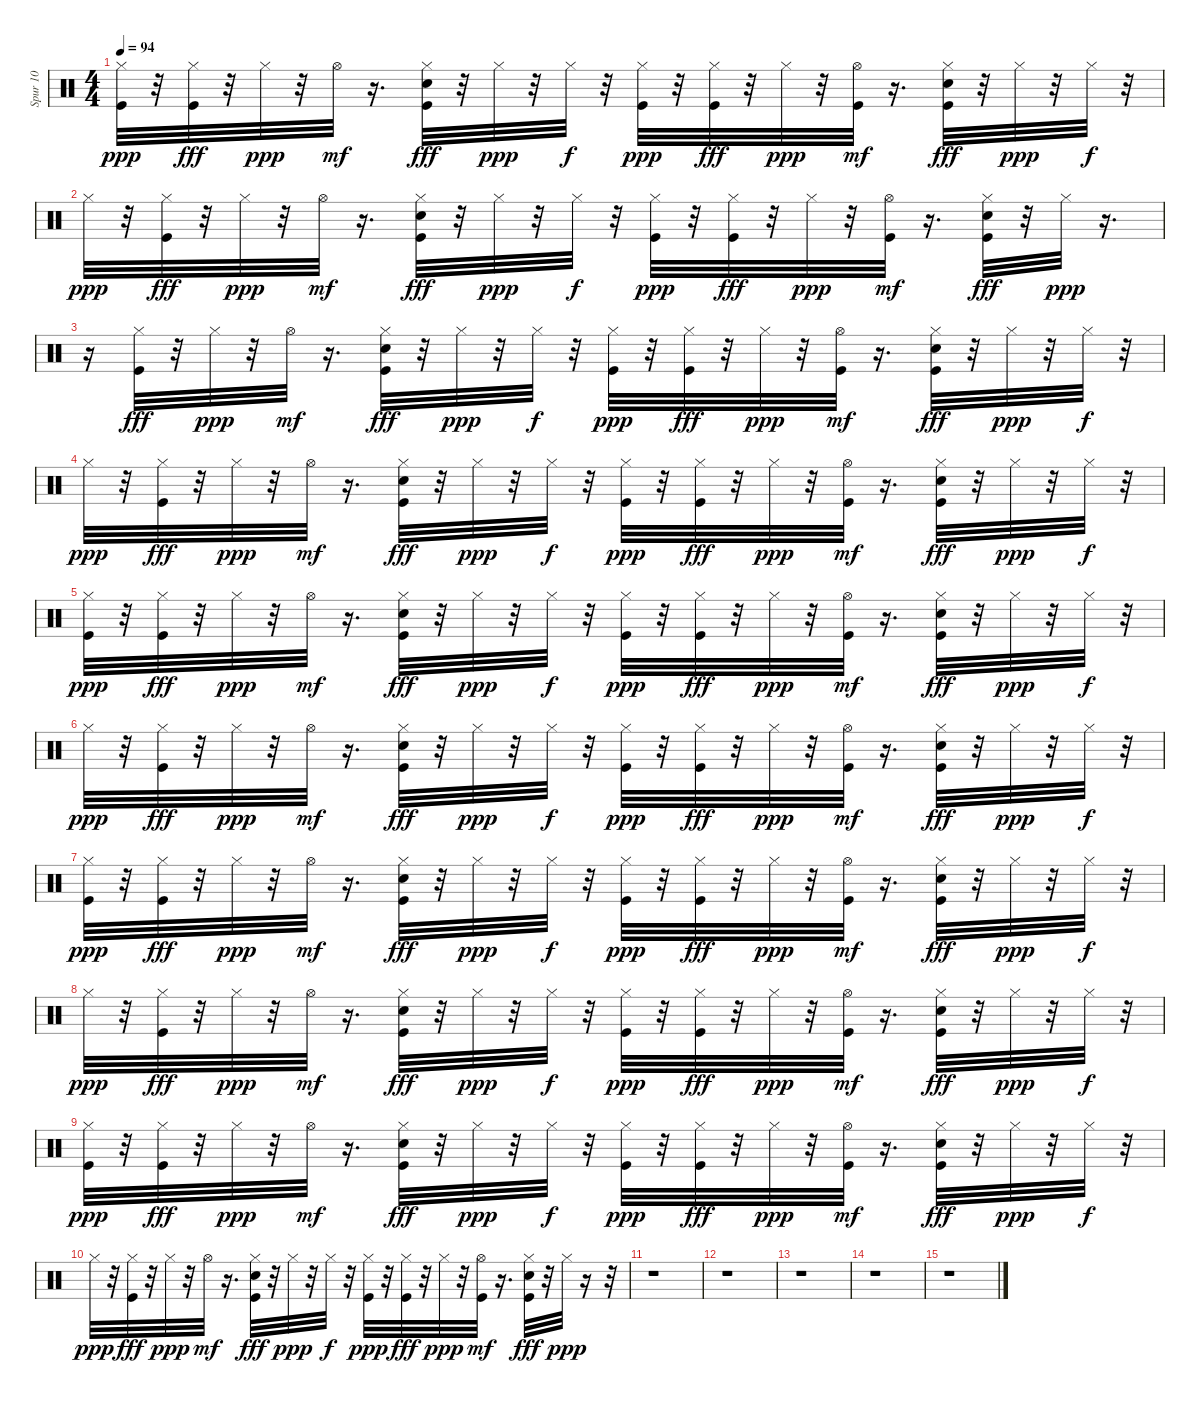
\track ("Spur 10" "Spur 10") {instrument percussion}
\staff {score}
\articulation defaults
\ts (4 4)
\tempo 94
\clef neutral
\ks c
("Kick (hit)" "Hi-Hat (closed)").32{dy ppp} r.32 ("Kick (hit)" "Hi-Hat (closed)").32{dy fff} r.32 "Hi-Hat (closed)".32{dy ppp} r.32 "Hi-Hat (open)".32{dy mf} r.16{d} ("Kick (hit)" "Electric Snare (hit)" "Hi-Hat (closed)").32{dy fff} r.32 "Hi-Hat (closed)".32{dy ppp} r.32 "Hi-Hat (closed)".32{dy f} r.32 ("Kick (hit)" "Hi-Hat (closed)").32{dy ppp} r.32 ("Kick (hit)" "Hi-Hat (closed)").32{dy fff} r.32 "Hi-Hat (closed)".32{dy ppp} r.32 ("Kick (hit)" "Hi-Hat (open)").32{dy mf} r.16{d} ("Kick (hit)" "Electric Snare (hit)" "Hi-Hat (closed)").32{dy fff} r.32 "Hi-Hat (closed)".32{dy ppp} r.32 "Hi-Hat (closed)".32{dy f} r.32 |
"Hi-Hat (closed)".32{dy ppp} r.32 ("Kick (hit)" "Hi-Hat (closed)").32{dy fff} r.32 "Hi-Hat (closed)".32{dy ppp} r.32 "Hi-Hat (open)".32{dy mf} r.16{d} ("Kick (hit)" "Electric Snare (hit)" "Hi-Hat (closed)").32{dy fff} r.32 "Hi-Hat (closed)".32{dy ppp} r.32 "Hi-Hat (closed)".32{dy f} r.32 ("Kick (hit)" "Hi-Hat (closed)").32{dy ppp} r.32 ("Kick (hit)" "Hi-Hat (closed)").32{dy fff} r.32 "Hi-Hat (closed)".32{dy ppp} r.32 ("Kick (hit)" "Hi-Hat (open)").32{dy mf} r.16{d} ("Kick (hit)" "Electric Snare (hit)" "Hi-Hat (closed)").32{dy fff} r.32 "Hi-Hat (closed)".32{dy ppp} r.16{d} |
r.16 ("Kick (hit)" "Hi-Hat (closed)").32{dy fff} r.32 "Hi-Hat (closed)".32{dy ppp} r.32 "Hi-Hat (open)".32{dy mf} r.16{d} ("Kick (hit)" "Electric Snare (hit)" "Hi-Hat (closed)").32{dy fff} r.32 "Hi-Hat (closed)".32{dy ppp} r.32 "Hi-Hat (closed)".32{dy f} r.32 ("Kick (hit)" "Hi-Hat (closed)").32{dy ppp} r.32 ("Kick (hit)" "Hi-Hat (closed)").32{dy fff} r.32 "Hi-Hat (closed)".32{dy ppp} r.32 ("Kick (hit)" "Hi-Hat (open)").32{dy mf} r.16{d} ("Kick (hit)" "Electric Snare (hit)" "Hi-Hat (closed)").32{dy fff} r.32 "Hi-Hat (closed)".32{dy ppp} r.32 "Hi-Hat (closed)".32{dy f} r.32 |
"Hi-Hat (closed)".32{dy ppp} r.32 ("Kick (hit)" "Hi-Hat (closed)").32{dy fff} r.32 "Hi-Hat (closed)".32{dy ppp} r.32 "Hi-Hat (open)".32{dy mf} r.16{d} ("Kick (hit)" "Electric Snare (hit)" "Hi-Hat (closed)").32{dy fff} r.32 "Hi-Hat (closed)".32{dy ppp} r.32 "Hi-Hat (closed)".32{dy f} r.32 ("Kick (hit)" "Hi-Hat (closed)").32{dy ppp} r.32 ("Kick (hit)" "Hi-Hat (closed)").32{dy fff} r.32 "Hi-Hat (closed)".32{dy ppp} r.32 ("Kick (hit)" "Hi-Hat (open)").32{dy mf} r.16{d} ("Kick (hit)" "Electric Snare (hit)" "Hi-Hat (closed)").32{dy fff} r.32 "Hi-Hat (closed)".32{dy ppp} r.32 "Hi-Hat (closed)".32{dy f} r.32 |
("Kick (hit)" "Hi-Hat (closed)").32{dy ppp} r.32 ("Kick (hit)" "Hi-Hat (closed)").32{dy fff} r.32 "Hi-Hat (closed)".32{dy ppp} r.32 "Hi-Hat (open)".32{dy mf} r.16{d} ("Kick (hit)" "Electric Snare (hit)" "Hi-Hat (closed)").32{dy fff} r.32 "Hi-Hat (closed)".32{dy ppp} r.32 "Hi-Hat (closed)".32{dy f} r.32 ("Kick (hit)" "Hi-Hat (closed)").32{dy ppp} r.32 ("Kick (hit)" "Hi-Hat (closed)").32{dy fff} r.32 "Hi-Hat (closed)".32{dy ppp} r.32 ("Kick (hit)" "Hi-Hat (open)").32{dy mf} r.16{d} ("Kick (hit)" "Electric Snare (hit)" "Hi-Hat (closed)").32{dy fff} r.32 "Hi-Hat (closed)".32{dy ppp} r.32 "Hi-Hat (closed)".32{dy f} r.32 |
"Hi-Hat (closed)".32{dy ppp} r.32 ("Kick (hit)" "Hi-Hat (closed)").32{dy fff} r.32 "Hi-Hat (closed)".32{dy ppp} r.32 "Hi-Hat (open)".32{dy mf} r.16{d} ("Kick (hit)" "Electric Snare (hit)" "Hi-Hat (closed)").32{dy fff} r.32 "Hi-Hat (closed)".32{dy ppp} r.32 "Hi-Hat (closed)".32{dy f} r.32 ("Kick (hit)" "Hi-Hat (closed)").32{dy ppp} r.32 ("Kick (hit)" "Hi-Hat (closed)").32{dy fff} r.32 "Hi-Hat (closed)".32{dy ppp} r.32 ("Kick (hit)" "Hi-Hat (open)").32{dy mf} r.16{d} ("Kick (hit)" "Electric Snare (hit)" "Hi-Hat (closed)").32{dy fff} r.32 "Hi-Hat (closed)".32{dy ppp} r.32 "Hi-Hat (closed)".32{dy f} r.32 |
("Kick (hit)" "Hi-Hat (closed)").32{dy ppp} r.32 ("Kick (hit)" "Hi-Hat (closed)").32{dy fff} r.32 "Hi-Hat (closed)".32{dy ppp} r.32 "Hi-Hat (open)".32{dy mf} r.16{d} ("Kick (hit)" "Electric Snare (hit)" "Hi-Hat (closed)").32{dy fff} r.32 "Hi-Hat (closed)".32{dy ppp} r.32 "Hi-Hat (closed)".32{dy f} r.32 ("Kick (hit)" "Hi-Hat (closed)").32{dy ppp} r.32 ("Kick (hit)" "Hi-Hat (closed)").32{dy fff} r.32 "Hi-Hat (closed)".32{dy ppp} r.32 ("Kick (hit)" "Hi-Hat (open)").32{dy mf} r.16{d} ("Kick (hit)" "Electric Snare (hit)" "Hi-Hat (closed)").32{dy fff} r.32 "Hi-Hat (closed)".32{dy ppp} r.32 "Hi-Hat (closed)".32{dy f} r.32 |
"Hi-Hat (closed)".32{dy ppp} r.32 ("Kick (hit)" "Hi-Hat (closed)").32{dy fff} r.32 "Hi-Hat (closed)".32{dy ppp} r.32 "Hi-Hat (open)".32{dy mf} r.16{d} ("Kick (hit)" "Electric Snare (hit)" "Hi-Hat (closed)").32{dy fff} r.32 "Hi-Hat (closed)".32{dy ppp} r.32 "Hi-Hat (closed)".32{dy f} r.32 ("Kick (hit)" "Hi-Hat (closed)").32{dy ppp} r.32 ("Kick (hit)" "Hi-Hat (closed)").32{dy fff} r.32 "Hi-Hat (closed)".32{dy ppp} r.32 ("Kick (hit)" "Hi-Hat (open)").32{dy mf} r.16{d} ("Kick (hit)" "Electric Snare (hit)" "Hi-Hat (closed)").32{dy fff} r.32 "Hi-Hat (closed)".32{dy ppp} r.32 "Hi-Hat (closed)".32{dy f} r.32 |
("Kick (hit)" "Hi-Hat (closed)").32{dy ppp} r.32 ("Kick (hit)" "Hi-Hat (closed)").32{dy fff} r.32 "Hi-Hat (closed)".32{dy ppp} r.32 "Hi-Hat (open)".32{dy mf} r.16{d} ("Kick (hit)" "Electric Snare (hit)" "Hi-Hat (closed)").32{dy fff} r.32 "Hi-Hat (closed)".32{dy ppp} r.32 "Hi-Hat (closed)".32{dy f} r.32 ("Kick (hit)" "Hi-Hat (closed)").32{dy ppp} r.32 ("Kick (hit)" "Hi-Hat (closed)").32{dy fff} r.32 "Hi-Hat (closed)".32{dy ppp} r.32 ("Kick (hit)" "Hi-Hat (open)").32{dy mf} r.16{d} ("Kick (hit)" "Electric Snare (hit)" "Hi-Hat (closed)").32{dy fff} r.32 "Hi-Hat (closed)".32{dy ppp} r.32 "Hi-Hat (closed)".32{dy f} r.32 |
"Hi-Hat (closed)".32{dy ppp} r.32 ("Kick (hit)" "Hi-Hat (closed)").32{dy fff} r.32 "Hi-Hat (closed)".32{dy ppp} r.32 "Hi-Hat (open)".32{dy mf} r.16{d} ("Kick (hit)" "Electric Snare (hit)" "Hi-Hat (closed)").32{dy fff} r.32 "Hi-Hat (closed)".32{dy ppp} r.32 "Hi-Hat (closed)".32{dy f} r.32 ("Kick (hit)" "Hi-Hat (closed)").32{dy ppp} r.32 ("Kick (hit)" "Hi-Hat (closed)").32{dy fff} r.32 "Hi-Hat (closed)".32{dy ppp} r.32 ("Kick (hit)" "Hi-Hat (open)").32{dy mf} r.16{d} ("Kick (hit)" "Electric Snare (hit)" "Hi-Hat (closed)").32{dy fff} r.32 "Hi-Hat (closed)".32{dy ppp} r.16 r.32 |
r.1 |
r.1 |
r.1 |
r.1 |
r.1
